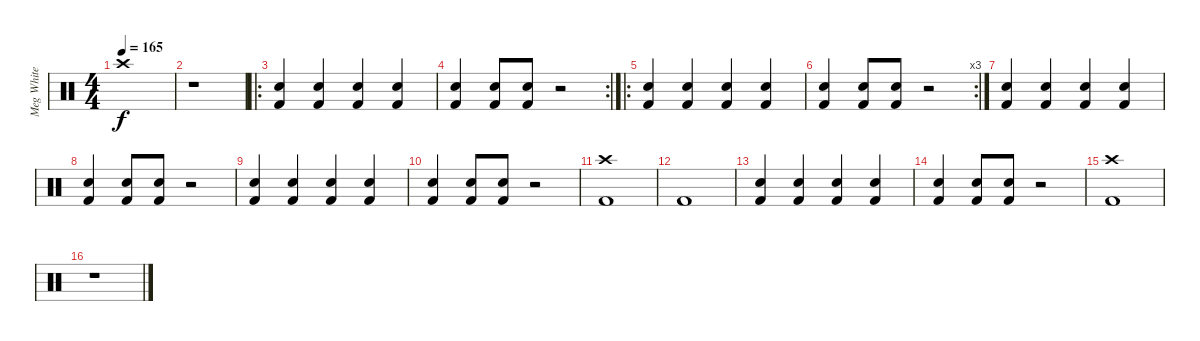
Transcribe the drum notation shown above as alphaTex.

\track ("Meg White" "Meg White") {instrument percussion}
\staff {score}
\articulation defaults
\ts (4 4)
\tempo 165
\clef neutral
\ks c "Crash high (hit)".1{dy f}
|
r.1 |
\ro
("Electric Snare (hit)" "Kick (hit) 2").4 ("Electric Snare (hit)" "Kick (hit) 2").4 ("Electric Snare (hit)" "Kick (hit) 2").4 ("Electric Snare (hit)" "Kick (hit) 2").4 |
\rc 2
("Electric Snare (hit)" "Kick (hit) 2").4 ("Electric Snare (hit)" "Kick (hit) 2").8 ("Electric Snare (hit)" "Kick (hit) 2").8 r.2 |
\ro
("Electric Snare (hit)" "Kick (hit) 2").4 ("Electric Snare (hit)" "Kick (hit) 2").4 ("Electric Snare (hit)" "Kick (hit) 2").4 ("Electric Snare (hit)" "Kick (hit) 2").4 |
\rc 3
("Electric Snare (hit)" "Kick (hit) 2").4 ("Electric Snare (hit)" "Kick (hit) 2").8 ("Electric Snare (hit)" "Kick (hit) 2").8 r.2 |
("Electric Snare (hit)" "Kick (hit) 2").4 ("Electric Snare (hit)" "Kick (hit) 2").4 ("Electric Snare (hit)" "Kick (hit) 2").4 ("Electric Snare (hit)" "Kick (hit) 2").4 |
("Electric Snare (hit)" "Kick (hit) 2").4 ("Electric Snare (hit)" "Kick (hit) 2").8 ("Electric Snare (hit)" "Kick (hit) 2").8 r.2 |
("Electric Snare (hit)" "Kick (hit) 2").4 ("Electric Snare (hit)" "Kick (hit) 2").4 ("Electric Snare (hit)" "Kick (hit) 2").4 ("Electric Snare (hit)" "Kick (hit) 2").4 |
("Electric Snare (hit)" "Kick (hit) 2").4 ("Electric Snare (hit)" "Kick (hit) 2").8 ("Electric Snare (hit)" "Kick (hit) 2").8 r.2 |
("Crash high (hit)" "Kick (hit) 2").1 |
"Kick (hit) 2".1 |
("Electric Snare (hit)" "Kick (hit) 2").4 ("Electric Snare (hit)" "Kick (hit) 2").4 ("Electric Snare (hit)" "Kick (hit) 2").4 ("Electric Snare (hit)" "Kick (hit) 2").4 |
("Electric Snare (hit)" "Kick (hit) 2").4 ("Electric Snare (hit)" "Kick (hit) 2").8 ("Electric Snare (hit)" "Kick (hit) 2").8 r.2 |
("Crash high (hit)" "Kick (hit) 2").1 |
r.1
